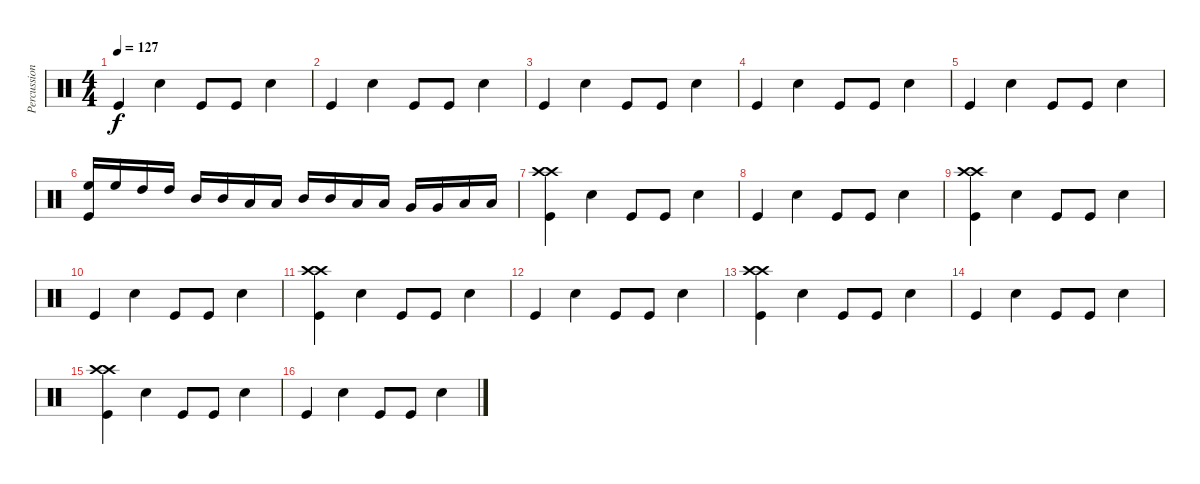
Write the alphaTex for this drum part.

\track ("Percussion" "Percussion") {instrument percussion}
\staff {score}
\articulation defaults
\ts (4 4)
\tempo 127
\clef neutral
\ks c "Kick (hit)".4{dy f} "Snare (hit) 2".4 "Kick (hit)".8 "Kick (hit)".8 "Snare (hit) 2".4
|
"Kick (hit)".4 "Snare (hit) 2".4 "Kick (hit)".8 "Kick (hit)".8 "Snare (hit) 2".4 |
"Kick (hit)".4 "Snare (hit) 2".4 "Kick (hit)".8 "Kick (hit)".8 "Snare (hit) 2".4 |
"Kick (hit)".4 "Snare (hit) 2".4 "Kick (hit)".8 "Kick (hit)".8 "Snare (hit) 2".4 |
"Kick (hit)".4 "Snare (hit) 2".4 "Kick (hit)".8 "Kick (hit)".8 "Snare (hit) 2".4 |
("High Floor Tom (hit)" "Kick (hit)").16 "High Floor Tom (hit)".16 "High Tom (hit)".16 "High Tom (hit)".16 "Mid Tom (hit)".16 "Mid Tom (hit)".16 "Low Tom (hit)".16 "Low Tom (hit)".16 "Mid Tom (hit)".16 "Mid Tom (hit)".16 "Low Tom (hit)".16 "Low Tom (hit)".16 "Very Low Tom (hit)".16 "Very Low Tom (hit)".16 "Low Floor Tom (hit)".16 "Low Floor Tom (hit)".16 |
("Crash high (hit)" "Crash high (hit)" "Kick (hit)").4 "Snare (hit) 2".4 "Kick (hit)".8 "Kick (hit)".8 "Snare (hit) 2".4 |
"Kick (hit)".4 "Snare (hit) 2".4 "Kick (hit)".8 "Kick (hit)".8 "Snare (hit) 2".4 |
("Crash high (hit)" "Crash high (hit)" "Kick (hit)").4 "Snare (hit) 2".4 "Kick (hit)".8 "Kick (hit)".8 "Snare (hit) 2".4 |
"Kick (hit)".4 "Snare (hit) 2".4 "Kick (hit)".8 "Kick (hit)".8 "Snare (hit) 2".4 |
("Crash high (hit)" "Crash high (hit)" "Kick (hit)").4 "Snare (hit) 2".4 "Kick (hit)".8 "Kick (hit)".8 "Snare (hit) 2".4 |
"Kick (hit)".4 "Snare (hit) 2".4 "Kick (hit)".8 "Kick (hit)".8 "Snare (hit) 2".4 |
("Crash high (hit)" "Crash high (hit)" "Kick (hit)").4 "Snare (hit) 2".4 "Kick (hit)".8 "Kick (hit)".8 "Snare (hit) 2".4 |
"Kick (hit)".4 "Snare (hit) 2".4 "Kick (hit)".8 "Kick (hit)".8 "Snare (hit) 2".4 |
("Crash high (hit)" "Crash high (hit)" "Kick (hit)").4 "Snare (hit) 2".4 "Kick (hit)".8 "Kick (hit)".8 "Snare (hit) 2".4 |
"Kick (hit)".4 "Snare (hit) 2".4 "Kick (hit)".8 "Kick (hit)".8 "Snare (hit) 2".4
